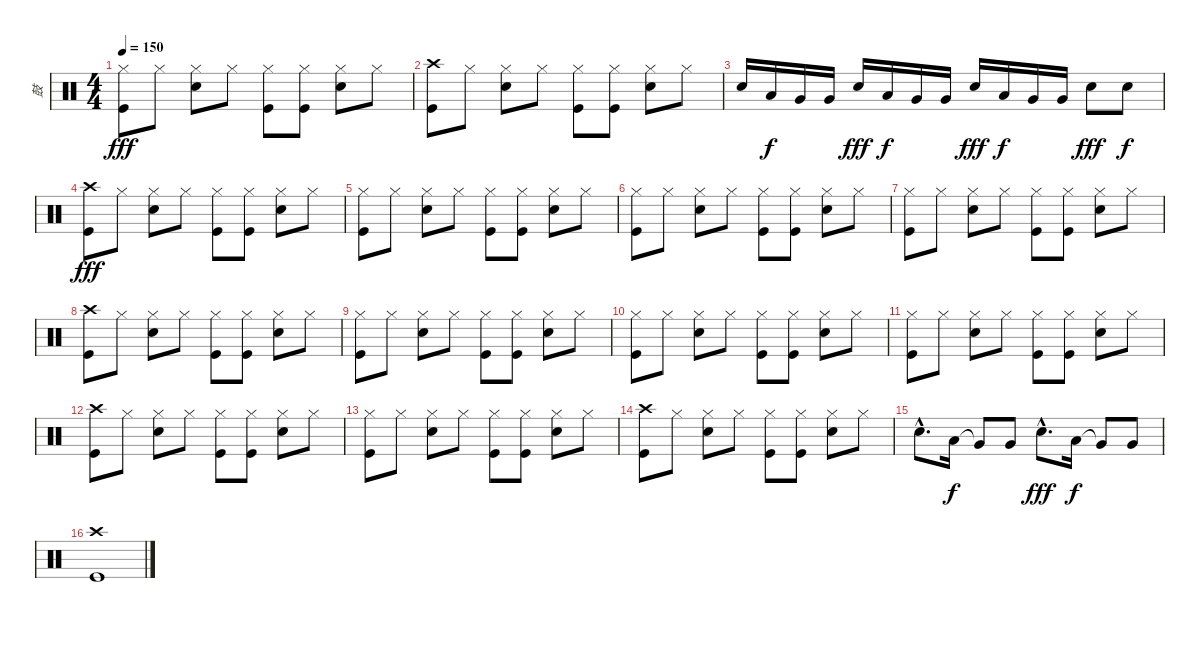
\track ("鼓" "鼓") {instrument percussion}
\staff {score}
\articulation defaults
\ts (4 4)
\tempo 150
\clef neutral
\ks c
("Hi-Hat (closed)" "Kick (hit)").8{dy fff} "Hi-Hat (closed)".8 ("Hi-Hat (closed)" "Electric Snare (hit)").8 "Hi-Hat (closed)".8 ("Hi-Hat (closed)" "Kick (hit)").8 ("Hi-Hat (closed)" "Kick (hit)").8 ("Hi-Hat (closed)" "Electric Snare (hit)").8 "Hi-Hat (closed)".8 |
("Crash high (hit)" "Kick (hit)").8 "Hi-Hat (closed)".8 ("Hi-Hat (closed)" "Electric Snare (hit)").8 "Hi-Hat (closed)".8 ("Hi-Hat (closed)" "Kick (hit)").8 ("Hi-Hat (closed)" "Kick (hit)").8 ("Hi-Hat (closed)" "Electric Snare (hit)").8 "Hi-Hat (closed)".8 |
"Electric Snare (hit)".16 "Low Tom (hit)".16{dy f} "Very Low Tom (hit)".16 "Very Low Tom (hit)".16 "Electric Snare (hit)".16{dy fff} "Low Tom (hit)".16{dy f} "Very Low Tom (hit)".16 "Very Low Tom (hit)".16 "Electric Snare (hit)".16{dy fff} "Low Tom (hit)".16{dy f} "Very Low Tom (hit)".16 "Very Low Tom (hit)".16 "Electric Snare (hit)".8{dy fff} "Electric Snare (hit)".8{dy f} |
("Crash high (hit)" "Kick (hit)").8{dy fff} "Hi-Hat (closed)".8 ("Hi-Hat (closed)" "Electric Snare (hit)").8 "Hi-Hat (closed)".8 ("Hi-Hat (closed)" "Kick (hit)").8 ("Hi-Hat (closed)" "Kick (hit)").8 ("Hi-Hat (closed)" "Electric Snare (hit)").8 "Hi-Hat (closed)".8 |
("Hi-Hat (closed)" "Kick (hit)").8 "Hi-Hat (closed)".8 ("Hi-Hat (closed)" "Electric Snare (hit)").8 "Hi-Hat (closed)".8 ("Hi-Hat (closed)" "Kick (hit)").8 ("Hi-Hat (closed)" "Kick (hit)").8 ("Hi-Hat (closed)" "Electric Snare (hit)").8 "Hi-Hat (closed)".8 |
("Hi-Hat (closed)" "Kick (hit)").8 "Hi-Hat (closed)".8 ("Hi-Hat (closed)" "Electric Snare (hit)").8 "Hi-Hat (closed)".8 ("Hi-Hat (closed)" "Kick (hit)").8 ("Hi-Hat (closed)" "Kick (hit)").8 ("Hi-Hat (closed)" "Electric Snare (hit)").8 "Hi-Hat (closed)".8 |
("Hi-Hat (closed)" "Kick (hit)").8 "Hi-Hat (closed)".8 ("Hi-Hat (closed)" "Electric Snare (hit)").8 "Hi-Hat (closed)".8 ("Hi-Hat (closed)" "Kick (hit)").8 ("Hi-Hat (closed)" "Kick (hit)").8 ("Hi-Hat (closed)" "Electric Snare (hit)").8 "Hi-Hat (closed)".8 |
("Crash high (hit)" "Kick (hit)").8 "Hi-Hat (closed)".8 ("Hi-Hat (closed)" "Electric Snare (hit)").8 "Hi-Hat (closed)".8 ("Hi-Hat (closed)" "Kick (hit)").8 ("Hi-Hat (closed)" "Kick (hit)").8 ("Hi-Hat (closed)" "Electric Snare (hit)").8 "Hi-Hat (closed)".8 |
("Hi-Hat (closed)" "Kick (hit)").8 "Hi-Hat (closed)".8 ("Hi-Hat (closed)" "Electric Snare (hit)").8 "Hi-Hat (closed)".8 ("Hi-Hat (closed)" "Kick (hit)").8 ("Hi-Hat (closed)" "Kick (hit)").8 ("Hi-Hat (closed)" "Electric Snare (hit)").8 "Hi-Hat (closed)".8 |
("Hi-Hat (closed)" "Kick (hit)").8 "Hi-Hat (closed)".8 ("Hi-Hat (closed)" "Electric Snare (hit)").8 "Hi-Hat (closed)".8 ("Hi-Hat (closed)" "Kick (hit)").8 ("Hi-Hat (closed)" "Kick (hit)").8 ("Hi-Hat (closed)" "Electric Snare (hit)").8 "Hi-Hat (closed)".8 |
("Hi-Hat (closed)" "Kick (hit)").8 "Hi-Hat (closed)".8 ("Hi-Hat (closed)" "Electric Snare (hit)").8 "Hi-Hat (closed)".8 ("Hi-Hat (closed)" "Kick (hit)").8 ("Hi-Hat (closed)" "Kick (hit)").8 ("Hi-Hat (closed)" "Electric Snare (hit)").8 "Hi-Hat (closed)".8 |
("Crash high (hit)" "Kick (hit)").8 "Hi-Hat (closed)".8 ("Hi-Hat (closed)" "Electric Snare (hit)").8 "Hi-Hat (closed)".8 ("Hi-Hat (closed)" "Kick (hit)").8 ("Hi-Hat (closed)" "Kick (hit)").8 ("Hi-Hat (closed)" "Electric Snare (hit)").8 "Hi-Hat (closed)".8 |
("Hi-Hat (closed)" "Kick (hit)").8 "Hi-Hat (closed)".8 ("Hi-Hat (closed)" "Electric Snare (hit)").8 "Hi-Hat (closed)".8 ("Hi-Hat (closed)" "Kick (hit)").8 ("Hi-Hat (closed)" "Kick (hit)").8 ("Hi-Hat (closed)" "Electric Snare (hit)").8 "Hi-Hat (closed)".8 |
("Crash high (hit)" "Kick (hit)").8 "Hi-Hat (closed)".8 ("Hi-Hat (closed)" "Electric Snare (hit)").8 "Hi-Hat (closed)".8 ("Hi-Hat (closed)" "Kick (hit)").8 ("Hi-Hat (closed)" "Kick (hit)").8 ("Hi-Hat (closed)" "Electric Snare (hit)").8 "Hi-Hat (closed)".8 |
"Electric Snare (hit)"{hac}.8{d} "Low Tom (hit)".16{dy f} "Very Low Tom (hit)"{t}.8 "Very Low Tom (hit)".8 "Electric Snare (hit)"{hac}.8{d dy fff} "Low Tom (hit)".16{dy f} "Very Low Tom (hit)"{t}.8 "Very Low Tom (hit)".8 |
("Crash high (hit)" "Kick (hit)").1
